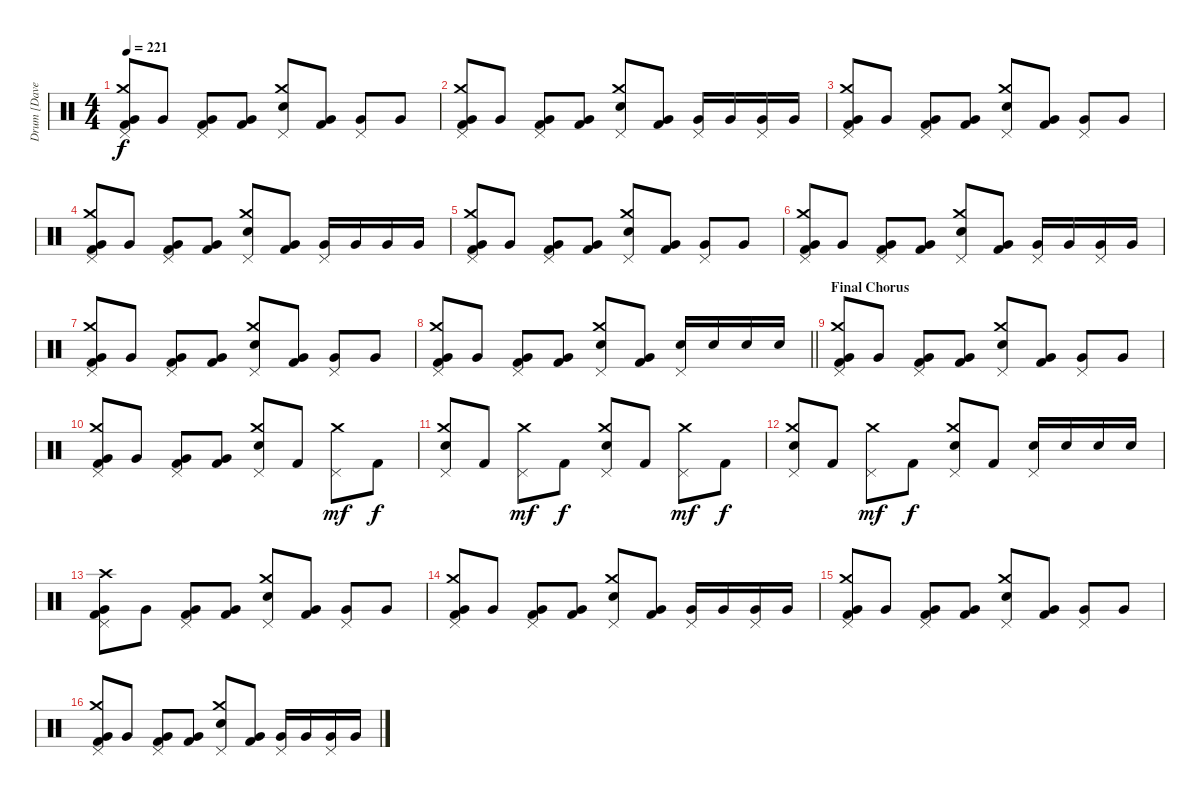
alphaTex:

\track ("Drum [Dave Grohl]" "Drum [Dave") {instrument percussion bank 255}
\staff {score}
\articulation defaults
\ts (4 4)
\tempo 221
\clef neutral
\ks c
("Pedal Hi-Hat (hit)" "Crash medium (hit)" "Very Low Tom (hit)" "Kick (hit) 2").8{dy f} "Very Low Tom (hit)".8 ("Pedal Hi-Hat (hit)" "Very Low Tom (hit)" "Kick (hit) 2").8 ("Very Low Tom (hit)" "Kick (hit) 2").8 ("Pedal Hi-Hat (hit)" "Crash medium (hit)" "Snare (hit) 2").8 ("Very Low Tom (hit)" "Kick (hit) 2").8 ("Pedal Hi-Hat (hit)" "Very Low Tom (hit)").8 "Very Low Tom (hit)".8 |
("Pedal Hi-Hat (hit)" "Crash medium (hit)" "Very Low Tom (hit)" "Kick (hit) 2").8 "Very Low Tom (hit)".8 ("Pedal Hi-Hat (hit)" "Very Low Tom (hit)" "Kick (hit) 2").8 ("Very Low Tom (hit)" "Kick (hit) 2").8 ("Pedal Hi-Hat (hit)" "Crash medium (hit)" "Snare (hit) 2").8 ("Very Low Tom (hit)" "Kick (hit) 2").8 ("Pedal Hi-Hat (hit)" "Very Low Tom (hit)").16 "Very Low Tom (hit)".16 ("Pedal Hi-Hat (hit)" "Very Low Tom (hit)").16 "Very Low Tom (hit)".16 |
("Pedal Hi-Hat (hit)" "Crash medium (hit)" "Very Low Tom (hit)" "Kick (hit) 2").8 "Very Low Tom (hit)".8 ("Pedal Hi-Hat (hit)" "Very Low Tom (hit)" "Kick (hit) 2").8 ("Very Low Tom (hit)" "Kick (hit) 2").8 ("Pedal Hi-Hat (hit)" "Crash medium (hit)" "Snare (hit) 2").8 ("Very Low Tom (hit)" "Kick (hit) 2").8 ("Pedal Hi-Hat (hit)" "Very Low Tom (hit)").8 "Very Low Tom (hit)".8 |
("Pedal Hi-Hat (hit)" "Crash medium (hit)" "Very Low Tom (hit)" "Kick (hit) 2").8 "Very Low Tom (hit)".8 ("Pedal Hi-Hat (hit)" "Very Low Tom (hit)" "Kick (hit) 2").8 ("Very Low Tom (hit)" "Kick (hit) 2").8 ("Pedal Hi-Hat (hit)" "Crash medium (hit)" "Snare (hit) 2").8 ("Very Low Tom (hit)" "Kick (hit) 2").8 ("Pedal Hi-Hat (hit)" "Very Low Tom (hit)").16 "Very Low Tom (hit)".16 "Very Low Tom (hit)".16 "Very Low Tom (hit)".16 |
("Pedal Hi-Hat (hit)" "Crash medium (hit)" "Very Low Tom (hit)" "Kick (hit) 2").8 "Very Low Tom (hit)".8 ("Pedal Hi-Hat (hit)" "Very Low Tom (hit)" "Kick (hit) 2").8 ("Very Low Tom (hit)" "Kick (hit) 2").8 ("Pedal Hi-Hat (hit)" "Crash medium (hit)" "Snare (hit) 2").8 ("Very Low Tom (hit)" "Kick (hit) 2").8 ("Pedal Hi-Hat (hit)" "Very Low Tom (hit)").8 "Very Low Tom (hit)".8 |
("Pedal Hi-Hat (hit)" "Crash medium (hit)" "Very Low Tom (hit)" "Kick (hit) 2").8 "Very Low Tom (hit)".8 ("Pedal Hi-Hat (hit)" "Very Low Tom (hit)" "Kick (hit) 2").8 ("Very Low Tom (hit)" "Kick (hit) 2").8 ("Pedal Hi-Hat (hit)" "Crash medium (hit)" "Snare (hit) 2").8 ("Very Low Tom (hit)" "Kick (hit) 2").8 ("Pedal Hi-Hat (hit)" "Very Low Tom (hit)").16 "Very Low Tom (hit)".16 ("Pedal Hi-Hat (hit)" "Very Low Tom (hit)").16 "Very Low Tom (hit)".16 |
("Pedal Hi-Hat (hit)" "Crash medium (hit)" "Very Low Tom (hit)" "Kick (hit) 2").8 "Very Low Tom (hit)".8 ("Pedal Hi-Hat (hit)" "Very Low Tom (hit)" "Kick (hit) 2").8 ("Very Low Tom (hit)" "Kick (hit) 2").8 ("Pedal Hi-Hat (hit)" "Crash medium (hit)" "Snare (hit) 2").8 ("Very Low Tom (hit)" "Kick (hit) 2").8 ("Pedal Hi-Hat (hit)" "Very Low Tom (hit)").8 "Very Low Tom (hit)".8 |
\barLineRight lightlight
("Pedal Hi-Hat (hit)" "Crash medium (hit)" "Very Low Tom (hit)" "Kick (hit) 2").8 "Very Low Tom (hit)".8 ("Pedal Hi-Hat (hit)" "Very Low Tom (hit)" "Kick (hit) 2").8 ("Very Low Tom (hit)" "Kick (hit) 2").8 ("Pedal Hi-Hat (hit)" "Crash medium (hit)" "Snare (hit) 2").8 ("Very Low Tom (hit)" "Kick (hit) 2").8 ("Pedal Hi-Hat (hit)" "Snare (hit) 2").16 "Snare (hit) 2".16 "Snare (hit) 2".16 "Snare (hit) 2".16 |
\section ("" "Final Chorus")
("Pedal Hi-Hat (hit)" "Crash medium (hit)" "Very Low Tom (hit)" "Kick (hit) 2").8 "Very Low Tom (hit)".8 ("Pedal Hi-Hat (hit)" "Very Low Tom (hit)" "Kick (hit) 2").8 ("Very Low Tom (hit)" "Kick (hit) 2").8 ("Pedal Hi-Hat (hit)" "Crash medium (hit)" "Snare (hit) 2").8 ("Very Low Tom (hit)" "Kick (hit) 2").8 ("Pedal Hi-Hat (hit)" "Very Low Tom (hit)").8 "Very Low Tom (hit)".8 |
("Pedal Hi-Hat (hit)" "Crash medium (hit)" "Very Low Tom (hit)" "Kick (hit) 2").8 "Very Low Tom (hit)".8 ("Pedal Hi-Hat (hit)" "Very Low Tom (hit)" "Kick (hit) 2").8 ("Very Low Tom (hit)" "Kick (hit) 2").8 ("Pedal Hi-Hat (hit)" "Crash medium (hit)" "Snare (hit) 2").8 "Kick (hit) 2".8 ("Pedal Hi-Hat (hit)" "Crash medium (hit)").8{dy mf} "Kick (hit) 2".8{dy f} |
("Pedal Hi-Hat (hit)" "Crash medium (hit)" "Snare (hit) 2").8 "Kick (hit) 2".8 ("Pedal Hi-Hat (hit)" "Crash medium (hit)").8{dy mf} "Kick (hit) 2".8{dy f} ("Pedal Hi-Hat (hit)" "Crash medium (hit)" "Snare (hit) 2").8 "Kick (hit) 2".8 ("Pedal Hi-Hat (hit)" "Crash medium (hit)").8{dy mf} "Kick (hit) 2".8{dy f} |
("Pedal Hi-Hat (hit)" "Crash medium (hit)" "Snare (hit) 2").8 "Kick (hit) 2".8 ("Pedal Hi-Hat (hit)" "Crash medium (hit)").8{dy mf} "Kick (hit) 2".8{dy f} ("Pedal Hi-Hat (hit)" "Crash medium (hit)" "Snare (hit) 2").8 "Kick (hit) 2".8 ("Pedal Hi-Hat (hit)" "Snare (hit) 2").16 "Snare (hit) 2".16 "Snare (hit) 2".16 "Snare (hit) 2".16 |
("Pedal Hi-Hat (hit)" "Crash high (hit)" "Very Low Tom (hit)" "Kick (hit) 2").8 "Very Low Tom (hit)".8 ("Pedal Hi-Hat (hit)" "Very Low Tom (hit)" "Kick (hit) 2").8 ("Very Low Tom (hit)" "Kick (hit) 2").8 ("Pedal Hi-Hat (hit)" "Crash medium (hit)" "Snare (hit) 2").8 ("Very Low Tom (hit)" "Kick (hit) 2").8 ("Pedal Hi-Hat (hit)" "Very Low Tom (hit)").8 "Very Low Tom (hit)".8 |
("Pedal Hi-Hat (hit)" "Crash medium (hit)" "Very Low Tom (hit)" "Kick (hit) 2").8 "Very Low Tom (hit)".8 ("Pedal Hi-Hat (hit)" "Very Low Tom (hit)" "Kick (hit) 2").8 ("Very Low Tom (hit)" "Kick (hit) 2").8 ("Pedal Hi-Hat (hit)" "Crash medium (hit)" "Snare (hit) 2").8 ("Very Low Tom (hit)" "Kick (hit) 2").8 ("Pedal Hi-Hat (hit)" "Very Low Tom (hit)").16 "Very Low Tom (hit)".16 ("Pedal Hi-Hat (hit)" "Very Low Tom (hit)").16 "Very Low Tom (hit)".16 |
("Pedal Hi-Hat (hit)" "Crash medium (hit)" "Very Low Tom (hit)" "Kick (hit) 2").8 "Very Low Tom (hit)".8 ("Pedal Hi-Hat (hit)" "Very Low Tom (hit)" "Kick (hit) 2").8 ("Very Low Tom (hit)" "Kick (hit) 2").8 ("Pedal Hi-Hat (hit)" "Crash medium (hit)" "Snare (hit) 2").8 ("Very Low Tom (hit)" "Kick (hit) 2").8 ("Pedal Hi-Hat (hit)" "Very Low Tom (hit)").8 "Very Low Tom (hit)".8 |
("Pedal Hi-Hat (hit)" "Crash medium (hit)" "Very Low Tom (hit)" "Kick (hit) 2").8 "Very Low Tom (hit)".8 ("Pedal Hi-Hat (hit)" "Very Low Tom (hit)" "Kick (hit) 2").8 ("Very Low Tom (hit)" "Kick (hit) 2").8 ("Pedal Hi-Hat (hit)" "Crash medium (hit)" "Snare (hit) 2").8 ("Very Low Tom (hit)" "Kick (hit) 2").8 ("Pedal Hi-Hat (hit)" "Very Low Tom (hit)").16 "Very Low Tom (hit)".16 ("Pedal Hi-Hat (hit)" "Very Low Tom (hit)").16 "Very Low Tom (hit)".16
